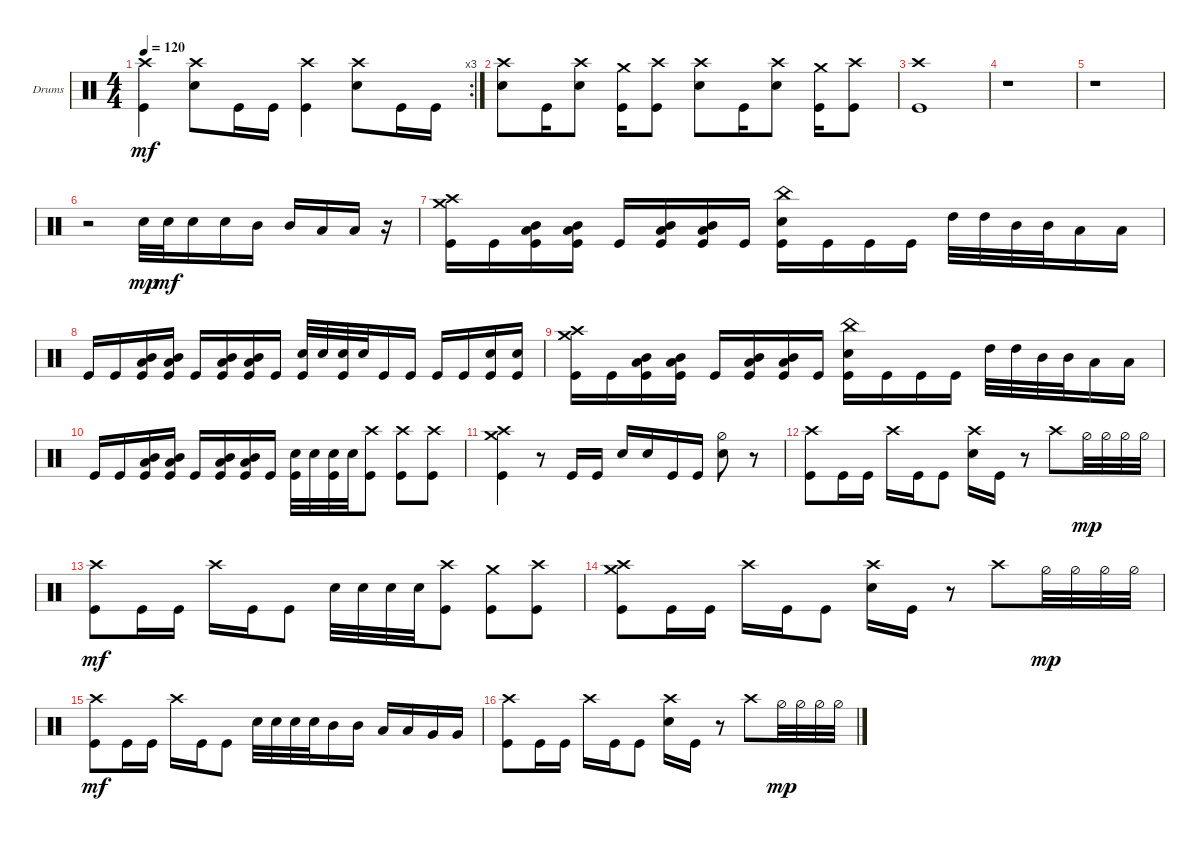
\defaultSystemsLayout 4
\bracketExtendMode groupsimilarinstruments
\firstSystemTrackNameOrientation horizontal
\otherSystemsTrackNameOrientation horizontal
\track ("Drumkit" "Drums") {instrument percussion}
\staff {score}
\articulation defaults
\rc 3
\ts (4 4)
\tempo 120
\clef neutral
\ks c
("Kick (hit)" "Crash high (hit)").4{dy mf} ("Crash high (hit)" "Snare (hit) 2").8 "Kick (hit)".16 "Kick (hit)".16 ("Crash high (hit)" "Kick (hit)").4 ("Crash high (hit)" "Snare (hit) 2").8 "Kick (hit)".16 "Kick (hit)".16 |
("Crash high (hit)" "Snare (hit) 2").8 "Kick (hit)".16 ("Snare (hit) 2" "Crash high (hit)").8 ("Kick (hit)" "Crash medium (hit)").16 ("Kick (hit)" "Crash high (hit)").8 ("Crash high (hit)" "Snare (hit) 2").8 "Kick (hit)".16 ("Snare (hit) 2" "Crash high (hit)").8 ("Kick (hit)" "Crash medium (hit)").16 ("Kick (hit)" "Crash high (hit)").8 |
("Crash high (hit)" "Kick (hit)").1 |
r.1 |
r.1 |
r.2 "Snare (hit) 2".32{dy mp} "Snare (hit) 2".32{dy mf} "Snare (hit) 2".16 "Snare (hit) 2".16 "Mid Tom (hit)".16 "Mid Tom (hit)".16 "Low Tom (hit)".16 "Low Tom (hit)".16 r.16 |
("Crash high (hit)" "Crash medium (hit)" "Kick (hit)").16 "Kick (hit)".16 ("Kick (hit)" "Mid Tom (hit)" "Low Tom (hit)").16 ("Kick (hit)" "Mid Tom (hit)" "Low Tom (hit)").16 "Kick (hit)".16 ("Kick (hit)" "Mid Tom (hit)" "Low Tom (hit)").16 ("Kick (hit)" "Mid Tom (hit)" "Low Tom (hit)").16 "Kick (hit)".16 ("Kick (hit)" "China (hit)" "Snare (hit) 2").16 "Kick (hit)".16 "Kick (hit)".16 "Kick (hit)".16 "High Tom (hit)".32 "High Tom (hit)".32 "Mid Tom (hit)".32 "Mid Tom (hit)".32 "Low Tom (hit)".16 "Low Tom (hit)".16 |
"Kick (hit)".16 "Kick (hit)".16 ("Kick (hit)" "Mid Tom (hit)" "Low Tom (hit)").16 ("Kick (hit)" "Mid Tom (hit)" "Low Tom (hit)").16 "Kick (hit)".16 ("Kick (hit)" "Mid Tom (hit)" "Low Tom (hit)").16 ("Kick (hit)" "Mid Tom (hit)" "Low Tom (hit)").16 "Kick (hit)".16 ("Snare (hit) 2" "Kick (hit)").32 "Snare (hit) 2".32 ("Snare (hit) 2" "Kick (hit)").32 "Snare (hit) 2".32 "Kick (hit)".16 "Kick (hit)".16 "Kick (hit)".16 "Kick (hit)".16 ("Kick (hit)" "Snare (hit) 2").16 ("Kick (hit)" "Snare (hit) 2").16 |
("Crash high (hit)" "Crash medium (hit)" "Kick (hit)").16 "Kick (hit)".16 ("Kick (hit)" "Mid Tom (hit)" "Low Tom (hit)").16 ("Kick (hit)" "Mid Tom (hit)" "Low Tom (hit)").16 "Kick (hit)".16 ("Kick (hit)" "Mid Tom (hit)" "Low Tom (hit)").16 ("Kick (hit)" "Mid Tom (hit)" "Low Tom (hit)").16 "Kick (hit)".16 ("Kick (hit)" "China (hit)" "Snare (hit) 2").16 "Kick (hit)".16 "Kick (hit)".16 "Kick (hit)".16 "High Tom (hit)".32 "High Tom (hit)".32 "Mid Tom (hit)".32 "Mid Tom (hit)".32 "Low Tom (hit)".16 "Low Tom (hit)".16 |
"Kick (hit)".16 "Kick (hit)".16 ("Kick (hit)" "Mid Tom (hit)" "Low Tom (hit)").16 ("Kick (hit)" "Mid Tom (hit)" "Low Tom (hit)").16 "Kick (hit)".16 ("Kick (hit)" "Mid Tom (hit)" "Low Tom (hit)").16 ("Kick (hit)" "Mid Tom (hit)" "Low Tom (hit)").16 "Kick (hit)".16 ("Snare (hit) 2" "Kick (hit)").32 "Snare (hit) 2".32 ("Snare (hit) 2" "Kick (hit)").32 "Snare (hit) 2".32 ("Kick (hit)" "Crash high (hit)").8 ("Kick (hit)" "Crash high (hit)").8 ("Kick (hit)" "Crash high (hit)").8 |
("Kick (hit)" "Crash high (hit)" "Crash medium (hit)").4 r.8 "Kick (hit)".16 "Kick (hit)".16 "Snare (hit) 2".16 "Snare (hit) 2".16 "Kick (hit)".16 "Kick (hit)".16 ("Snare (hit) 2" "Hi-Hat (half)").8 r.8 |
("Kick (hit)" "Crash high (hit)").8 "Kick (hit)".16 "Kick (hit)".16 "Crash high (hit)".16 "Kick (hit)".16 "Kick (hit)".8 ("Crash high (hit)" "Snare (hit) 2").16 "Kick (hit)".16 r.8 "Crash high (hit)".8 "Hi-Hat (half)".32{dy mp} "Hi-Hat (half)".32 "Hi-Hat (half)".32 "Hi-Hat (half)".32 |
("Kick (hit)" "Crash high (hit)").8{dy mf} "Kick (hit)".16 "Kick (hit)".16 "Crash high (hit)".16 "Kick (hit)".16 "Kick (hit)".8 "Snare (hit) 2".32 "Snare (hit) 2".32 "Snare (hit) 2".32 "Snare (hit) 2".32 ("Kick (hit)" "Crash high (hit)").8 ("Kick (hit)" "Crash medium (hit)").8 ("Kick (hit)" "Crash high (hit)").8 |
("Kick (hit)" "Crash high (hit)" "Crash medium (hit)").8 "Kick (hit)".16 "Kick (hit)".16 "Crash high (hit)".16 "Kick (hit)".16 "Kick (hit)".8 ("Crash high (hit)" "Snare (hit) 2").16 "Kick (hit)".16 r.8 "Crash high (hit)".8 "Hi-Hat (half)".32{dy mp} "Hi-Hat (half)".32 "Hi-Hat (half)".32 "Hi-Hat (half)".32 |
("Kick (hit)" "Crash high (hit)").8{dy mf} "Kick (hit)".16 "Kick (hit)".16 "Crash high (hit)".16 "Kick (hit)".16 "Kick (hit)".8 "Snare (hit) 2".32 "Snare (hit) 2".32 "Snare (hit) 2".32 "Snare (hit) 2".32 "Mid Tom (hit)".16 "Mid Tom (hit)".16 "Low Tom (hit)".16 "Low Tom (hit)".16 "Very Low Tom (hit)".16 "Very Low Tom (hit)".16 |
("Kick (hit)" "Crash high (hit)").8 "Kick (hit)".16 "Kick (hit)".16 "Crash high (hit)".16 "Kick (hit)".16 "Kick (hit)".8 ("Crash high (hit)" "Snare (hit) 2").16 "Kick (hit)".16 r.8 "Crash high (hit)".8 "Hi-Hat (half)".32{dy mp} "Hi-Hat (half)".32 "Hi-Hat (half)".32 "Hi-Hat (half)".32
